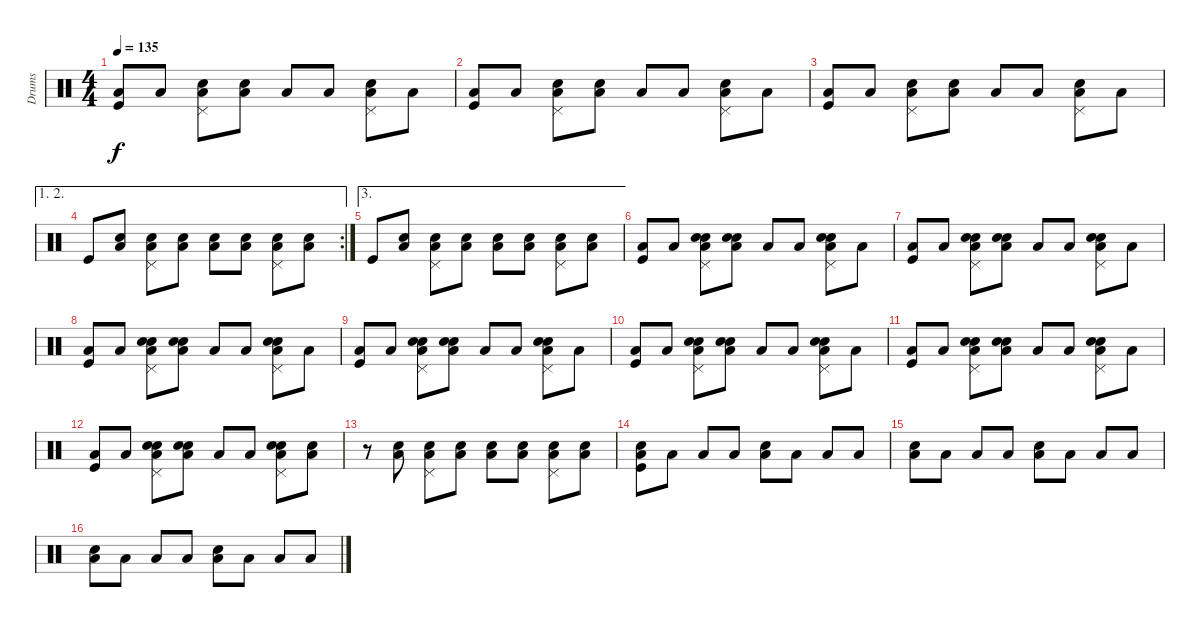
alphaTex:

\track ("Drums" "Drums") {instrument percussion}
\staff {score}
\articulation defaults
\ts (4 4)
\tempo 135
\clef neutral
\ks c
("Low Floor Tom (hit)" "Kick (hit)").8{dy f} "Low Floor Tom (hit)".8 ("Pedal Hi-Hat (hit)" "Snare (hit) 2" "Low Floor Tom (hit)").8 ("Snare (hit) 2" "Low Floor Tom (hit)").8 "Low Floor Tom (hit)".8 "Low Floor Tom (hit)".8 ("Pedal Hi-Hat (hit)" "Snare (hit) 2" "Low Floor Tom (hit)").8 "Low Floor Tom (hit)".8 |
("Low Floor Tom (hit)" "Kick (hit)").8 "Low Floor Tom (hit)".8 ("Pedal Hi-Hat (hit)" "Snare (hit) 2" "Low Floor Tom (hit)").8 ("Snare (hit) 2" "Low Floor Tom (hit)").8 "Low Floor Tom (hit)".8 "Low Floor Tom (hit)".8 ("Pedal Hi-Hat (hit)" "Snare (hit) 2" "Low Floor Tom (hit)").8 "Low Floor Tom (hit)".8 |
("Low Floor Tom (hit)" "Kick (hit)").8 "Low Floor Tom (hit)".8 ("Pedal Hi-Hat (hit)" "Snare (hit) 2" "Low Floor Tom (hit)").8 ("Snare (hit) 2" "Low Floor Tom (hit)").8 "Low Floor Tom (hit)".8 "Low Floor Tom (hit)".8 ("Pedal Hi-Hat (hit)" "Snare (hit) 2" "Low Floor Tom (hit)").8 "Low Floor Tom (hit)".8 |
\ae (1 2)
\rc 2 "Kick (hit)".8
("Snare (hit) 2" "Low Floor Tom (hit)").8 ("Pedal Hi-Hat (hit)" "Snare (hit) 2" "Low Floor Tom (hit)").8 ("Snare (hit) 2" "Low Floor Tom (hit)").8 ("Snare (hit) 2" "Low Floor Tom (hit)").8 ("Snare (hit) 2" "Low Floor Tom (hit)").8 ("Pedal Hi-Hat (hit)" "Snare (hit) 2" "Low Floor Tom (hit)").8 ("Snare (hit) 2" "Low Floor Tom (hit)").8 |
\ae 3 "Kick (hit)".8
("Snare (hit) 2" "Low Floor Tom (hit)").8 ("Pedal Hi-Hat (hit)" "Snare (hit) 2" "Low Floor Tom (hit)").8 ("Snare (hit) 2" "Low Floor Tom (hit)").8 ("Snare (hit) 2" "Low Floor Tom (hit)").8 ("Snare (hit) 2" "Low Floor Tom (hit)").8 ("Pedal Hi-Hat (hit)" "Snare (hit) 2" "Low Floor Tom (hit)").8 ("Snare (hit) 2" "Low Floor Tom (hit)").8 |
("Low Floor Tom (hit)" "Kick (hit)").8 "Low Floor Tom (hit)".8 ("Pedal Hi-Hat (hit)" "Hand Clap (hit)" "Snare (hit) 2" "Low Floor Tom (hit)").8 ("Hand Clap (hit)" "Snare (hit) 2" "Low Floor Tom (hit)").8 "Low Floor Tom (hit)".8 "Low Floor Tom (hit)".8 ("Pedal Hi-Hat (hit)" "Hand Clap (hit)" "Snare (hit) 2" "Low Floor Tom (hit)").8 "Low Floor Tom (hit)".8 |
("Low Floor Tom (hit)" "Kick (hit)").8 "Low Floor Tom (hit)".8 ("Pedal Hi-Hat (hit)" "Hand Clap (hit)" "Snare (hit) 2" "Low Floor Tom (hit)").8 ("Hand Clap (hit)" "Snare (hit) 2" "Low Floor Tom (hit)").8 "Low Floor Tom (hit)".8 "Low Floor Tom (hit)".8 ("Pedal Hi-Hat (hit)" "Hand Clap (hit)" "Snare (hit) 2" "Low Floor Tom (hit)").8 "Low Floor Tom (hit)".8 |
("Low Floor Tom (hit)" "Kick (hit)").8 "Low Floor Tom (hit)".8 ("Pedal Hi-Hat (hit)" "Hand Clap (hit)" "Snare (hit) 2" "Low Floor Tom (hit)").8 ("Hand Clap (hit)" "Snare (hit) 2" "Low Floor Tom (hit)").8 "Low Floor Tom (hit)".8 "Low Floor Tom (hit)".8 ("Pedal Hi-Hat (hit)" "Hand Clap (hit)" "Snare (hit) 2" "Low Floor Tom (hit)").8 "Low Floor Tom (hit)".8 |
("Low Floor Tom (hit)" "Kick (hit)").8 "Low Floor Tom (hit)".8 ("Pedal Hi-Hat (hit)" "Hand Clap (hit)" "Snare (hit) 2" "Low Floor Tom (hit)").8 ("Hand Clap (hit)" "Snare (hit) 2" "Low Floor Tom (hit)").8 "Low Floor Tom (hit)".8 "Low Floor Tom (hit)".8 ("Pedal Hi-Hat (hit)" "Hand Clap (hit)" "Snare (hit) 2" "Low Floor Tom (hit)").8 "Low Floor Tom (hit)".8 |
("Low Floor Tom (hit)" "Kick (hit)").8 "Low Floor Tom (hit)".8 ("Pedal Hi-Hat (hit)" "Hand Clap (hit)" "Snare (hit) 2" "Low Floor Tom (hit)").8 ("Hand Clap (hit)" "Snare (hit) 2" "Low Floor Tom (hit)").8 "Low Floor Tom (hit)".8 "Low Floor Tom (hit)".8 ("Pedal Hi-Hat (hit)" "Hand Clap (hit)" "Snare (hit) 2" "Low Floor Tom (hit)").8 "Low Floor Tom (hit)".8 |
("Low Floor Tom (hit)" "Kick (hit)").8 "Low Floor Tom (hit)".8 ("Pedal Hi-Hat (hit)" "Hand Clap (hit)" "Snare (hit) 2" "Low Floor Tom (hit)").8 ("Hand Clap (hit)" "Snare (hit) 2" "Low Floor Tom (hit)").8 "Low Floor Tom (hit)".8 "Low Floor Tom (hit)".8 ("Pedal Hi-Hat (hit)" "Hand Clap (hit)" "Snare (hit) 2" "Low Floor Tom (hit)").8 "Low Floor Tom (hit)".8 |
("Low Floor Tom (hit)" "Kick (hit)").8 "Low Floor Tom (hit)".8 ("Pedal Hi-Hat (hit)" "Hand Clap (hit)" "Snare (hit) 2" "Low Floor Tom (hit)").8 ("Hand Clap (hit)" "Snare (hit) 2" "Low Floor Tom (hit)").8 "Low Floor Tom (hit)".8 "Low Floor Tom (hit)".8 ("Pedal Hi-Hat (hit)" "Hand Clap (hit)" "Snare (hit) 2" "Low Floor Tom (hit)").8 ("Hand Clap (hit)" "Low Floor Tom (hit)").8 |
r.8 ("Snare (hit) 2" "Low Floor Tom (hit)").8 ("Pedal Hi-Hat (hit)" "Snare (hit) 2" "Low Floor Tom (hit)").8 ("Snare (hit) 2" "Low Floor Tom (hit)").8 ("Snare (hit) 2" "Low Floor Tom (hit)").8 ("Snare (hit) 2" "Low Floor Tom (hit)").8 ("Pedal Hi-Hat (hit)" "Snare (hit) 2" "Low Floor Tom (hit)").8 ("Snare (hit) 2" "Low Floor Tom (hit)").8 |
("Snare (hit) 2" "Low Floor Tom (hit)" "Kick (hit)").8 "Low Floor Tom (hit)".8 "Low Floor Tom (hit)".8 "Low Floor Tom (hit)".8 ("Snare (hit) 2" "Low Floor Tom (hit)").8 "Low Floor Tom (hit)".8 "Low Floor Tom (hit)".8 "Low Floor Tom (hit)".8 |
("Snare (hit) 2" "Low Floor Tom (hit)").8 "Low Floor Tom (hit)".8 "Low Floor Tom (hit)".8 "Low Floor Tom (hit)".8 ("Snare (hit) 2" "Low Floor Tom (hit)").8 "Low Floor Tom (hit)".8 "Low Floor Tom (hit)".8 "Low Floor Tom (hit)".8 |
("Snare (hit) 2" "Low Floor Tom (hit)").8 "Low Floor Tom (hit)".8 "Low Floor Tom (hit)".8 "Low Floor Tom (hit)".8 ("Snare (hit) 2" "Low Floor Tom (hit)").8 "Low Floor Tom (hit)".8 "Low Floor Tom (hit)".8 "Low Floor Tom (hit)".8
